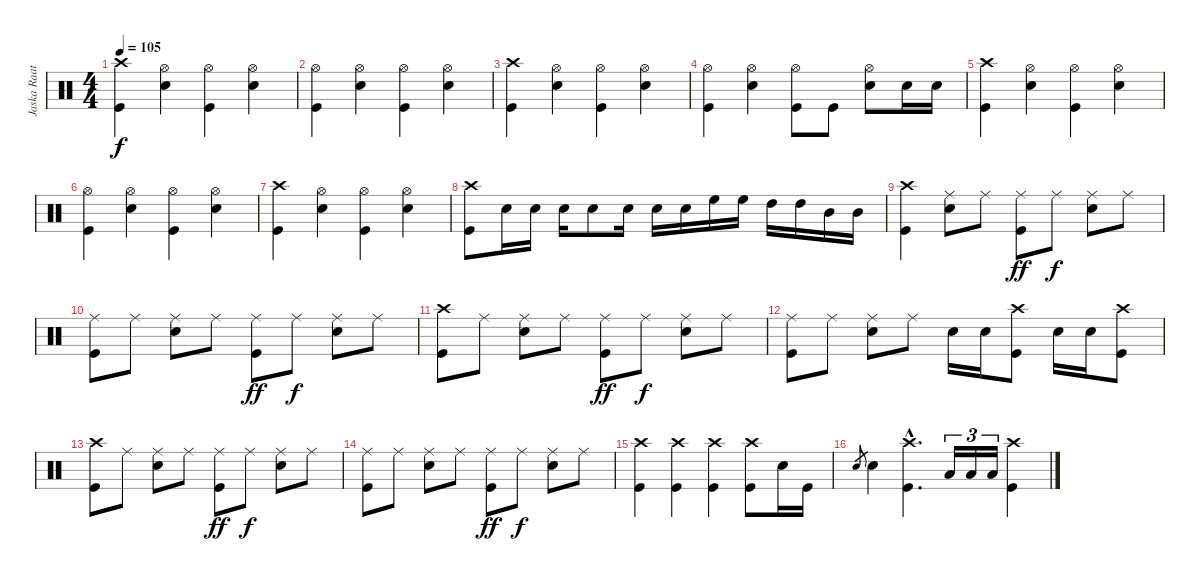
\track ("Jaska Raatikainen" "Jaska Raat") {instrument percussion}
\staff {score}
\articulation defaults
\ts (4 4)
\tempo 105
\clef neutral
\ks c
("Crash high (hit)" "Kick (hit)").4{dy f} ("Hi-Hat (open)" "Snare (hit) 2").4 ("Hi-Hat (open)" "Kick (hit)").4 ("Hi-Hat (open)" "Snare (hit) 2").4 |
("Hi-Hat (open)" "Kick (hit)").4 ("Hi-Hat (open)" "Snare (hit) 2").4 ("Hi-Hat (open)" "Kick (hit)").4 ("Hi-Hat (open)" "Snare (hit) 2").4 |
("Crash high (hit)" "Kick (hit)").4 ("Hi-Hat (open)" "Snare (hit) 2").4 ("Hi-Hat (open)" "Kick (hit)").4 ("Hi-Hat (open)" "Snare (hit) 2").4 |
("Hi-Hat (open)" "Kick (hit)").4 ("Hi-Hat (open)" "Snare (hit) 2").4 ("Hi-Hat (open)" "Kick (hit)").8 "Kick (hit)".8 ("Hi-Hat (open)" "Snare (hit) 2").8 "Snare (hit) 2".16 "Snare (hit) 2".16 |
("Crash high (hit)" "Kick (hit)").4 ("Hi-Hat (open)" "Snare (hit) 2").4 ("Hi-Hat (open)" "Kick (hit)").4 ("Hi-Hat (open)" "Snare (hit) 2").4 |
("Hi-Hat (open)" "Kick (hit)").4 ("Hi-Hat (open)" "Snare (hit) 2").4 ("Hi-Hat (open)" "Kick (hit)").4 ("Hi-Hat (open)" "Snare (hit) 2").4 |
("Crash high (hit)" "Kick (hit)").4 ("Hi-Hat (open)" "Snare (hit) 2").4 ("Hi-Hat (open)" "Kick (hit)").4 ("Hi-Hat (open)" "Snare (hit) 2").4 |
("Crash high (hit)" "Kick (hit)").8 "Snare (hit) 2".16 "Snare (hit) 2".16 "Snare (hit) 2".16 "Snare (hit) 2".8 "Snare (hit) 2".16 "Snare (hit) 2".16 "Snare (hit) 2".16 "High Floor Tom (hit)".16 "High Floor Tom (hit)".16 "High Tom (hit)".16 "High Tom (hit)".16 "Mid Tom (hit)".16 "Mid Tom (hit)".16 |
("Crash high (hit)" "Kick (hit)").4 ("Ride (middle)" "Snare (hit) 2").8 "Ride (middle)".8 ("Ride (middle)" "Kick (hit)").8{dy ff} "Ride (middle)".8{dy f} ("Ride (middle)" "Snare (hit) 2").8 "Ride (middle)".8 |
("Ride (middle)" "Kick (hit)").8 "Ride (middle)".8 ("Ride (middle)" "Snare (hit) 2").8 "Ride (middle)".8 ("Ride (middle)" "Kick (hit)").8{dy ff} "Ride (middle)".8{dy f} ("Ride (middle)" "Snare (hit) 2").8 "Ride (middle)".8 |
("Crash high (hit)" "Kick (hit)").8 "Ride (middle)".8 ("Ride (middle)" "Snare (hit) 2").8 "Ride (middle)".8 ("Ride (middle)" "Kick (hit)").8{dy ff} "Ride (middle)".8{dy f} ("Ride (middle)" "Snare (hit) 2").8 "Ride (middle)".8 |
("Ride (middle)" "Kick (hit)").8 "Ride (middle)".8 ("Ride (middle)" "Snare (hit) 2").8 "Ride (middle)".8 "Snare (hit) 2".16 "Snare (hit) 2".16 ("Crash high (hit)" "Kick (hit)").8 "Snare (hit) 2".16 "Snare (hit) 2".16 ("Crash high (hit)" "Kick (hit)").8 |
("Crash high (hit)" "Kick (hit)").8 "Ride (middle)".8 ("Ride (middle)" "Snare (hit) 2").8 "Ride (middle)".8 ("Ride (middle)" "Kick (hit)").8{dy ff} "Ride (middle)".8{dy f} ("Ride (middle)" "Snare (hit) 2").8 "Ride (middle)".8 |
("Ride (middle)" "Kick (hit)").8 "Ride (middle)".8 ("Ride (middle)" "Snare (hit) 2").8 "Ride (middle)".8 ("Ride (middle)" "Kick (hit)").8{dy ff} "Ride (middle)".8{dy f} ("Ride (middle)" "Snare (hit) 2").8 "Ride (middle)".8 |
("Crash high (hit)" "Kick (hit)").4 ("Crash high (hit)" "Kick (hit)").4 ("Crash high (hit)" "Kick (hit)").4 ("Crash high (hit)" "Kick (hit)").8 "Snare (hit) 2".16 "Kick (hit)".16 |
"Snare (hit) 2".8{gr} "Snare (hit) 2".4 ("Crash high (hit)"{hac} "Kick (hit)"{hac}).4{d} "Low Floor Tom (hit)".16{tu (3 2)} "Low Floor Tom (hit)".16{tu (3 2)} "Low Floor Tom (hit)".16{tu (3 2)} ("Crash high (hit)" "Kick (hit)").4
